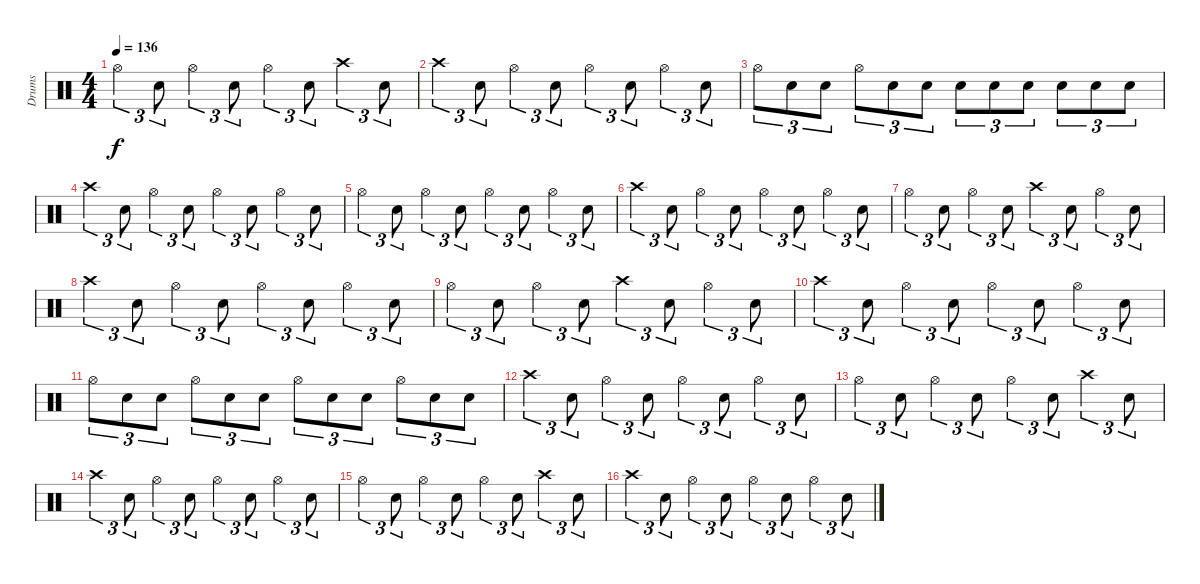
\track ("Drums" "Drums") {instrument percussion}
\staff {score}
\articulation defaults
\ts (4 4)
\tempo 136
\clef neutral
\ks c "Hi-Hat (open)".4{tu (3 2) dy f} "Snare (hit) 2".8{tu (3 2)} "Hi-Hat (open)".4{tu (3 2)} "Snare (hit) 2".8{tu (3 2)} "Hi-Hat (open)".4{tu (3 2)} "Snare (hit) 2".8{tu (3 2)} "Crash high (hit)".4{tu (3 2)} "Snare (hit) 2".8{tu (3 2)}
|
"Crash high (hit)".4{tu (3 2)} "Snare (hit) 2".8{tu (3 2)} "Hi-Hat (open)".4{tu (3 2)} "Snare (hit) 2".8{tu (3 2)} "Hi-Hat (open)".4{tu (3 2)} "Snare (hit) 2".8{tu (3 2)} "Hi-Hat (open)".4{tu (3 2)} "Snare (hit) 2".8{tu (3 2)} |
"Hi-Hat (open)".8{tu (3 2)} "Snare (hit) 2".8{tu (3 2)} "Snare (hit) 2".8{tu (3 2)} "Hi-Hat (open)".8{tu (3 2)} "Snare (hit) 2".8{tu (3 2)} "Snare (hit) 2".8{tu (3 2)} "Snare (hit) 2".8{tu (3 2)} "Snare (hit) 2".8{tu (3 2)} "Snare (hit) 2".8{tu (3 2)} "Snare (hit) 2".8{tu (3 2)} "Snare (hit) 2".8{tu (3 2)} "Snare (hit) 2".8{tu (3 2)} |
"Crash high (hit)".4{tu (3 2)} "Snare (hit) 2".8{tu (3 2)} "Hi-Hat (open)".4{tu (3 2)} "Snare (hit) 2".8{tu (3 2)} "Hi-Hat (open)".4{tu (3 2)} "Snare (hit) 2".8{tu (3 2)} "Hi-Hat (open)".4{tu (3 2)} "Snare (hit) 2".8{tu (3 2)} |
"Hi-Hat (open)".4{tu (3 2)} "Snare (hit) 2".8{tu (3 2)} "Hi-Hat (open)".4{tu (3 2)} "Snare (hit) 2".8{tu (3 2)} "Hi-Hat (open)".4{tu (3 2)} "Snare (hit) 2".8{tu (3 2)} "Hi-Hat (open)".4{tu (3 2)} "Snare (hit) 2".8{tu (3 2)} |
"Crash high (hit)".4{tu (3 2)} "Snare (hit) 2".8{tu (3 2)} "Hi-Hat (open)".4{tu (3 2)} "Snare (hit) 2".8{tu (3 2)} "Hi-Hat (open)".4{tu (3 2)} "Snare (hit) 2".8{tu (3 2)} "Hi-Hat (open)".4{tu (3 2)} "Snare (hit) 2".8{tu (3 2)} |
"Hi-Hat (open)".4{tu (3 2)} "Snare (hit) 2".8{tu (3 2)} "Hi-Hat (open)".4{tu (3 2)} "Snare (hit) 2".8{tu (3 2)} "Crash high (hit)".4{tu (3 2)} "Snare (hit) 2".8{tu (3 2)} "Hi-Hat (open)".4{tu (3 2)} "Snare (hit) 2".8{tu (3 2)} |
"Crash high (hit)".4{tu (3 2)} "Snare (hit) 2".8{tu (3 2)} "Hi-Hat (open)".4{tu (3 2)} "Snare (hit) 2".8{tu (3 2)} "Hi-Hat (open)".4{tu (3 2)} "Snare (hit) 2".8{tu (3 2)} "Hi-Hat (open)".4{tu (3 2)} "Snare (hit) 2".8{tu (3 2)} |
"Hi-Hat (open)".4{tu (3 2)} "Snare (hit) 2".8{tu (3 2)} "Hi-Hat (open)".4{tu (3 2)} "Snare (hit) 2".8{tu (3 2)} "Crash high (hit)".4{tu (3 2)} "Snare (hit) 2".8{tu (3 2)} "Hi-Hat (open)".4{tu (3 2)} "Snare (hit) 2".8{tu (3 2)} |
"Crash high (hit)".4{tu (3 2)} "Snare (hit) 2".8{tu (3 2)} "Hi-Hat (open)".4{tu (3 2)} "Snare (hit) 2".8{tu (3 2)} "Hi-Hat (open)".4{tu (3 2)} "Snare (hit) 2".8{tu (3 2)} "Hi-Hat (open)".4{tu (3 2)} "Snare (hit) 2".8{tu (3 2)} |
"Hi-Hat (open)".8{tu (3 2)} "Snare (hit) 2".8{tu (3 2)} "Snare (hit) 2".8{tu (3 2)} "Hi-Hat (open)".8{tu (3 2)} "Snare (hit) 2".8{tu (3 2)} "Snare (hit) 2".8{tu (3 2)} "Hi-Hat (open)".8{tu (3 2)} "Snare (hit) 2".8{tu (3 2)} "Snare (hit) 2".8{tu (3 2)} "Hi-Hat (open)".8{tu (3 2)} "Snare (hit) 2".8{tu (3 2)} "Snare (hit) 2".8{tu (3 2)} |
"Crash high (hit)".4{tu (3 2)} "Snare (hit) 2".8{tu (3 2)} "Hi-Hat (open)".4{tu (3 2)} "Snare (hit) 2".8{tu (3 2)} "Hi-Hat (open)".4{tu (3 2)} "Snare (hit) 2".8{tu (3 2)} "Hi-Hat (open)".4{tu (3 2)} "Snare (hit) 2".8{tu (3 2)} |
"Hi-Hat (open)".4{tu (3 2)} "Snare (hit) 2".8{tu (3 2)} "Hi-Hat (open)".4{tu (3 2)} "Snare (hit) 2".8{tu (3 2)} "Hi-Hat (open)".4{tu (3 2)} "Snare (hit) 2".8{tu (3 2)} "Crash high (hit)".4{tu (3 2)} "Snare (hit) 2".8{tu (3 2)} |
"Crash high (hit)".4{tu (3 2)} "Snare (hit) 2".8{tu (3 2)} "Hi-Hat (open)".4{tu (3 2)} "Snare (hit) 2".8{tu (3 2)} "Hi-Hat (open)".4{tu (3 2)} "Snare (hit) 2".8{tu (3 2)} "Hi-Hat (open)".4{tu (3 2)} "Snare (hit) 2".8{tu (3 2)} |
"Hi-Hat (open)".4{tu (3 2)} "Snare (hit) 2".8{tu (3 2)} "Hi-Hat (open)".4{tu (3 2)} "Snare (hit) 2".8{tu (3 2)} "Hi-Hat (open)".4{tu (3 2)} "Snare (hit) 2".8{tu (3 2)} "Crash high (hit)".4{tu (3 2)} "Snare (hit) 2".8{tu (3 2)} |
"Crash high (hit)".4{tu (3 2)} "Snare (hit) 2".8{tu (3 2)} "Hi-Hat (open)".4{tu (3 2)} "Snare (hit) 2".8{tu (3 2)} "Hi-Hat (open)".4{tu (3 2)} "Snare (hit) 2".8{tu (3 2)} "Hi-Hat (open)".4{tu (3 2)} "Snare (hit) 2".8{tu (3 2)}
